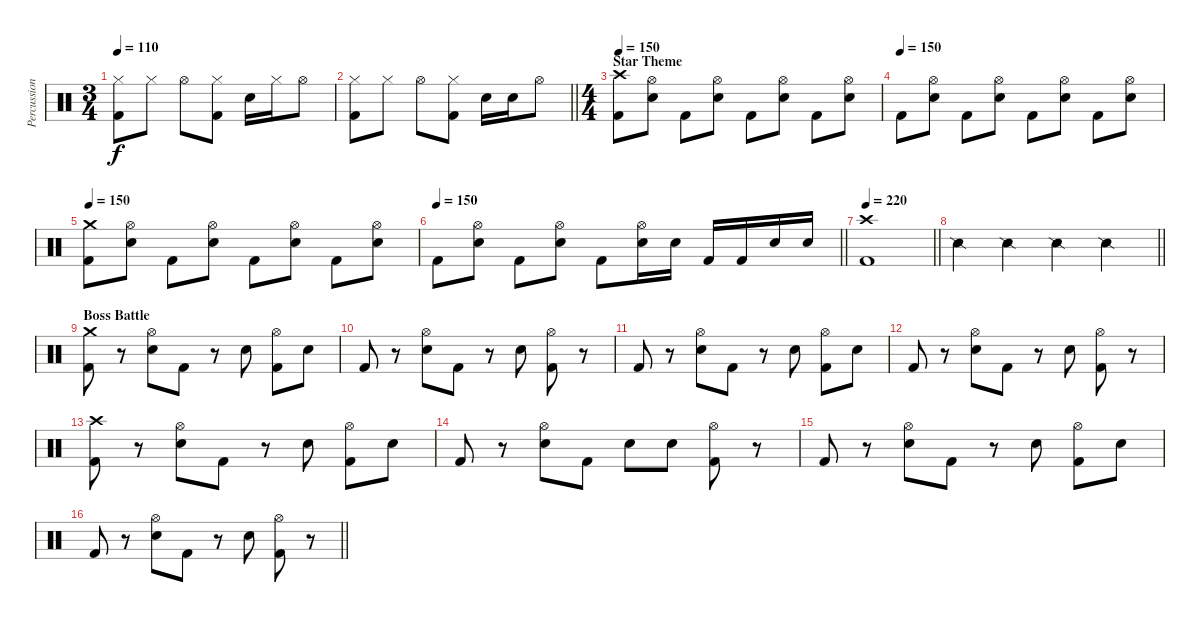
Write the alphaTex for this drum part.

\track ("Percussion" "Percussion") {instrument percussion}
\staff {score}
\articulation defaults
\ts (3 4)
\tempo 110
\clef neutral
\ks c
("Hi-Hat (closed)" "Kick (hit) 2").8{dy f} "Hi-Hat (closed)".8 "Hi-Hat (open)".8 ("Hi-Hat (closed)" "Kick (hit) 2").8 "Electric Snare (hit)".16 "Hi-Hat (closed)".16 "Hi-Hat (open)".8 |
\barLineRight lightlight
("Hi-Hat (closed)" "Kick (hit) 2").8 "Hi-Hat (closed)".8 "Hi-Hat (open)".8 ("Hi-Hat (closed)" "Kick (hit) 2").8 "Electric Snare (hit)".16 "Electric Snare (hit)".16 "Hi-Hat (open)".8 |
\ts (4 4)
\section ("" "Star Theme")
\tempo 150
("Crash high (hit)" "Kick (hit) 2").8 ("Hi-Hat (open)" "Electric Snare (hit)").8 "Kick (hit) 2".8 ("Hi-Hat (open)" "Electric Snare (hit)").8 "Kick (hit) 2".8 ("Hi-Hat (open)" "Electric Snare (hit)").8 "Kick (hit) 2".8 ("Hi-Hat (open)" "Electric Snare (hit)").8 |
\tempo (150)
"Kick (hit) 2".8 ("Hi-Hat (open)" "Electric Snare (hit)").8 "Kick (hit) 2".8 ("Hi-Hat (open)" "Electric Snare (hit)").8 "Kick (hit) 2".8 ("Hi-Hat (open)" "Electric Snare (hit)").8 "Kick (hit) 2".8 ("Hi-Hat (open)" "Electric Snare (hit)").8 |
\tempo 150
("Crash medium (hit)" "Kick (hit) 2").8 ("Hi-Hat (open)" "Electric Snare (hit)").8 "Kick (hit) 2".8 ("Hi-Hat (open)" "Electric Snare (hit)").8 "Kick (hit) 2".8 ("Hi-Hat (open)" "Electric Snare (hit)").8 "Kick (hit) 2".8 ("Hi-Hat (open)" "Electric Snare (hit)").8 |
\tempo 150
\barLineRight lightlight "Kick (hit) 2".8
("Hi-Hat (open)" "Electric Snare (hit)").8 "Kick (hit) 2".8 ("Hi-Hat (open)" "Electric Snare (hit)").8 "Kick (hit) 2".8 ("Hi-Hat (open)" "Electric Snare (hit)").16 "Electric Snare (hit)".16 "Kick (hit) 2".16 "Kick (hit) 2".16 "Electric Snare (hit)".16 "Electric Snare (hit)".16 |
\tempo 220
\barLineRight lightlight
("Crash high (hit)" "Kick (hit) 2").1 |
\barLineRight lightlight "Snare (side stick) 2".4 "Snare (side stick) 2".4 "Snare (side stick) 2".4 "Snare (side stick) 2".4
|
\section ("" "Boss Battle")
("Crash medium (hit)" "Kick (hit) 2").8 r.8 ("Hi-Hat (open)" "Electric Snare (hit)").8 "Kick (hit) 2".8 r.8 "Electric Snare (hit)".8 ("Hi-Hat (open)" "Kick (hit) 2").8 "Electric Snare (hit)".8 |
"Kick (hit) 2".8 r.8 ("Hi-Hat (open)" "Electric Snare (hit)").8 "Kick (hit) 2".8 r.8 "Electric Snare (hit)".8 ("Hi-Hat (open)" "Kick (hit) 2").8 r.8 |
"Kick (hit) 2".8 r.8 ("Hi-Hat (open)" "Electric Snare (hit)").8 "Kick (hit) 2".8 r.8 "Electric Snare (hit)".8 ("Hi-Hat (open)" "Kick (hit) 2").8 "Electric Snare (hit)".8 |
"Kick (hit) 2".8 r.8 ("Hi-Hat (open)" "Electric Snare (hit)").8 "Kick (hit) 2".8 r.8 "Electric Snare (hit)".8 ("Hi-Hat (open)" "Kick (hit) 2").8 r.8 |
("Crash high (hit)" "Kick (hit) 2").8 r.8 ("Hi-Hat (open)" "Electric Snare (hit)").8 "Kick (hit) 2".8 r.8 "Electric Snare (hit)".8 ("Hi-Hat (open)" "Kick (hit) 2").8 "Electric Snare (hit)".8 |
"Kick (hit) 2".8 r.8 ("Hi-Hat (open)" "Electric Snare (hit)").8 "Kick (hit) 2".8 "Electric Snare (hit)".8 "Electric Snare (hit)".8 ("Hi-Hat (open)" "Kick (hit) 2").8 r.8 |
"Kick (hit) 2".8 r.8 ("Hi-Hat (open)" "Electric Snare (hit)").8 "Kick (hit) 2".8 r.8 "Electric Snare (hit)".8 ("Hi-Hat (open)" "Kick (hit) 2").8 "Electric Snare (hit)".8 |
\barLineRight lightlight "Kick (hit) 2".8
r.8 ("Hi-Hat (open)" "Electric Snare (hit)").8 "Kick (hit) 2".8 r.8 "Electric Snare (hit)".8 ("Hi-Hat (open)" "Kick (hit) 2").8 r.8
